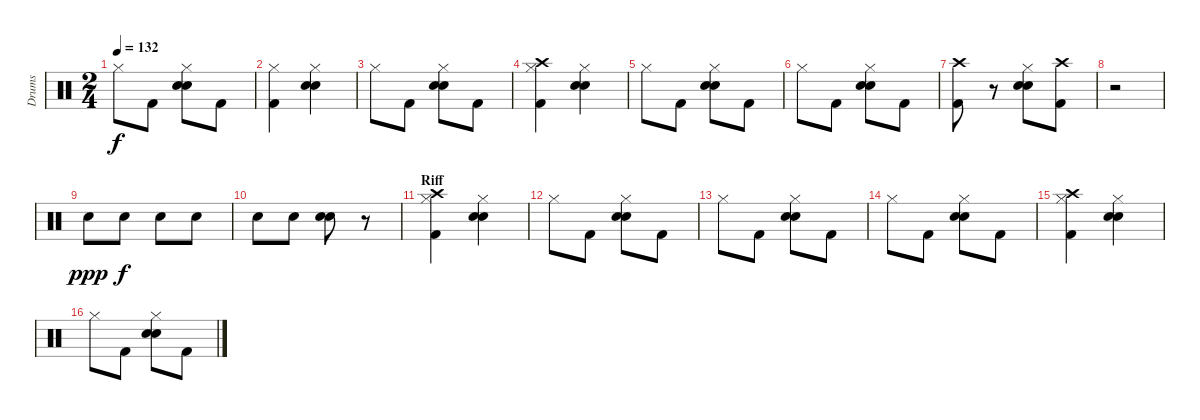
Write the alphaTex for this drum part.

\track ("Drums" "Drums") {instrument percussion}
\staff {score}
\articulation defaults
\ts (2 4)
\tempo 132
\clef neutral
\ks c "Hi-Hat (closed)".8{dy f} "Kick (hit) 2".8
("Electric Snare (hit)" "Electric Snare (hit)" "Hi-Hat (closed)").8 "Kick (hit) 2".8 |
("Kick (hit) 2" "Hi-Hat (closed)").4 ("Electric Snare (hit)" "Electric Snare (hit)" "Hi-Hat (closed)").4 |
"Hi-Hat (closed)".8 "Kick (hit) 2".8 ("Electric Snare (hit)" "Electric Snare (hit)" "Hi-Hat (closed)").8 "Kick (hit) 2".8 |
("Kick (hit) 2" "Crash high (hit)" "Hi-Hat (closed)").4 ("Electric Snare (hit)" "Electric Snare (hit)" "Hi-Hat (closed)").4 |
"Hi-Hat (closed)".8 "Kick (hit) 2".8 ("Electric Snare (hit)" "Electric Snare (hit)" "Hi-Hat (closed)").8 "Kick (hit) 2".8 |
"Hi-Hat (closed)".8 "Kick (hit) 2".8 ("Electric Snare (hit)" "Electric Snare (hit)" "Hi-Hat (closed)").8 "Kick (hit) 2".8 |
("Kick (hit) 2" "Crash high (hit)").8 r.8 ("Electric Snare (hit)" "Electric Snare (hit)" "Hi-Hat (closed)").8 ("Kick (hit) 2" "Crash high (hit)").8 |
r.2 |
"Electric Snare (hit)".8{dy ppp volume 10} "Electric Snare (hit)".8{dy f volume 11} "Electric Snare (hit)".8{volume 11} "Electric Snare (hit)".8 |
"Electric Snare (hit)".8{volume 12} "Electric Snare (hit)".8 ("Electric Snare (hit)" "Electric Snare (hit)").8{bd 240 volume 15} r.8 |
\section ("" "Riff")
("Kick (hit) 2" "Crash high (hit)" "Hi-Hat (closed)").4 ("Electric Snare (hit)" "Electric Snare (hit)" "Hi-Hat (closed)").4 |
"Hi-Hat (closed)".8 "Kick (hit) 2".8 ("Electric Snare (hit)" "Electric Snare (hit)" "Hi-Hat (closed)").8 "Kick (hit) 2".8 |
"Hi-Hat (closed)".8 "Kick (hit) 2".8 ("Electric Snare (hit)" "Electric Snare (hit)" "Hi-Hat (closed)").8 "Kick (hit) 2".8 |
"Hi-Hat (closed)".8 "Kick (hit) 2".8 ("Electric Snare (hit)" "Electric Snare (hit)" "Hi-Hat (closed)").8 "Kick (hit) 2".8 |
("Kick (hit) 2" "Crash high (hit)" "Hi-Hat (closed)").4 ("Electric Snare (hit)" "Electric Snare (hit)" "Hi-Hat (closed)").4 |
"Hi-Hat (closed)".8 "Kick (hit) 2".8 ("Electric Snare (hit)" "Electric Snare (hit)" "Hi-Hat (closed)").8 "Kick (hit) 2".8
